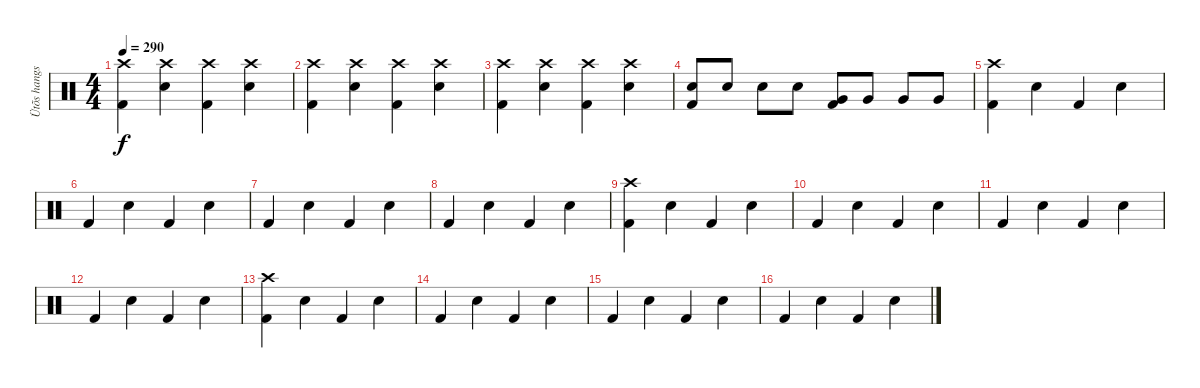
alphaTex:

\track ("Ütõs hangszer" "Ütõs hangs") {instrument percussion}
\staff {score}
\articulation defaults
\ts (4 4)
\tempo 290
\clef neutral
\ks c
("Crash high (hit)" "Kick (hit) 2").4{dy f} ("Crash high (hit)" "Snare (hit) 2").4 ("Crash high (hit)" "Kick (hit) 2").4 ("Crash high (hit)" "Snare (hit) 2").4 |
("Crash high (hit)" "Kick (hit) 2").4 ("Crash high (hit)" "Snare (hit) 2").4 ("Crash high (hit)" "Kick (hit) 2").4 ("Crash high (hit)" "Snare (hit) 2").4 |
("Crash high (hit)" "Kick (hit) 2").4 ("Crash high (hit)" "Snare (hit) 2").4 ("Crash high (hit)" "Kick (hit) 2").4 ("Crash high (hit)" "Snare (hit) 2").4 |
("Snare (hit) 2" "Kick (hit) 2").8 "Snare (hit) 2".8 "Snare (hit) 2".8 "Snare (hit) 2".8 ("Very Low Tom (hit)" "Kick (hit) 2").8 "Very Low Tom (hit)".8 "Very Low Tom (hit)".8 "Very Low Tom (hit)".8 |
("Crash high (hit)" "Kick (hit) 2").4 "Snare (hit) 2".4 "Kick (hit) 2".4 "Snare (hit) 2".4 |
"Kick (hit) 2".4 "Snare (hit) 2".4 "Kick (hit) 2".4 "Snare (hit) 2".4 |
"Kick (hit) 2".4 "Snare (hit) 2".4 "Kick (hit) 2".4 "Snare (hit) 2".4 |
"Kick (hit) 2".4 "Snare (hit) 2".4 "Kick (hit) 2".4 "Snare (hit) 2".4 |
("Crash high (hit)" "Kick (hit) 2").4 "Snare (hit) 2".4 "Kick (hit) 2".4 "Snare (hit) 2".4 |
"Kick (hit) 2".4 "Snare (hit) 2".4 "Kick (hit) 2".4 "Snare (hit) 2".4 |
"Kick (hit) 2".4 "Snare (hit) 2".4 "Kick (hit) 2".4 "Snare (hit) 2".4 |
"Kick (hit) 2".4 "Snare (hit) 2".4 "Kick (hit) 2".4 "Snare (hit) 2".4 |
("Crash high (hit)" "Kick (hit) 2").4 "Snare (hit) 2".4 "Kick (hit) 2".4 "Snare (hit) 2".4 |
"Kick (hit) 2".4 "Snare (hit) 2".4 "Kick (hit) 2".4 "Snare (hit) 2".4 |
"Kick (hit) 2".4 "Snare (hit) 2".4 "Kick (hit) 2".4 "Snare (hit) 2".4 |
"Kick (hit) 2".4 "Snare (hit) 2".4 "Kick (hit) 2".4 "Snare (hit) 2".4
